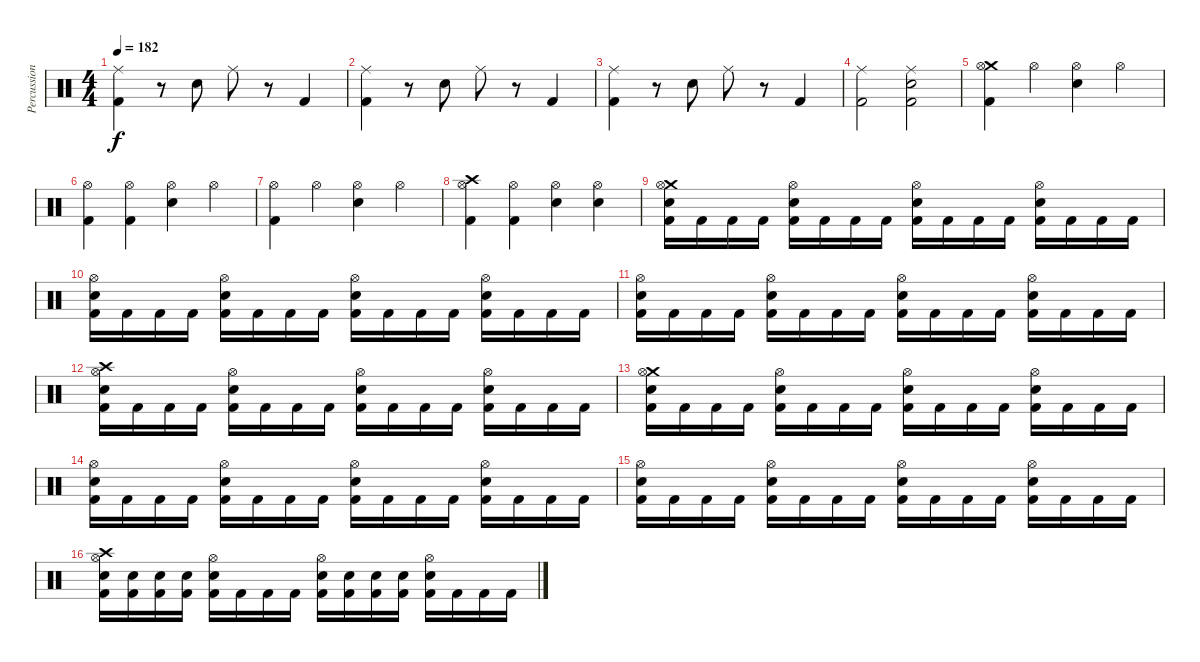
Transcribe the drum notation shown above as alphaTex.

\track ("Percussion" "Percussion") {instrument percussion}
\staff {score}
\articulation defaults
\ts (4 4)
\tempo 182
\clef neutral
\ks c
("Ride (middle)" "Kick (hit) 2").4{dy f} r.8 "Electric Snare (hit)".8 "Ride (middle)".8 r.8 "Kick (hit) 2".4 |
("Ride (middle)" "Kick (hit) 2").4 r.8 "Electric Snare (hit)".8 "Ride (middle)".8 r.8 "Kick (hit) 2".4 |
("Ride (middle)" "Kick (hit) 2").4 r.8 "Electric Snare (hit)".8 "Ride (middle)".8 r.8 "Kick (hit) 2".4 |
("Ride (middle)" "Kick (hit) 2").2 ("Ride (middle)" "Electric Snare (hit)" "Kick (hit) 2").2 |
("Crash medium (hit)" "Hi-Hat (open)" "Kick (hit) 2").4 "Hi-Hat (open)".4 ("Hi-Hat (open)" "Electric Snare (hit)").4 "Hi-Hat (open)".4 |
("Hi-Hat (open)" "Kick (hit) 2").4 ("Hi-Hat (open)" "Kick (hit) 2").4 ("Hi-Hat (open)" "Electric Snare (hit)").4 "Hi-Hat (open)".4 |
("Hi-Hat (open)" "Kick (hit) 2").4 "Hi-Hat (open)".4 ("Hi-Hat (open)" "Electric Snare (hit)").4 "Hi-Hat (open)".4 |
("Crash high (hit)" "Hi-Hat (open)" "Kick (hit) 2").4 ("Hi-Hat (open)" "Kick (hit) 2").4 ("Hi-Hat (open)" "Electric Snare (hit)").4 ("Hi-Hat (open)" "Electric Snare (hit)").4 |
("Crash medium (hit)" "Hi-Hat (open)" "Electric Snare (hit)" "Kick (hit) 2").16 "Kick (hit) 2".16 "Kick (hit) 2".16 "Kick (hit) 2".16 ("Hi-Hat (open)" "Electric Snare (hit)" "Kick (hit) 2").16 "Kick (hit) 2".16 "Kick (hit) 2".16 "Kick (hit) 2".16 ("Hi-Hat (open)" "Electric Snare (hit)" "Kick (hit) 2").16 "Kick (hit) 2".16 "Kick (hit) 2".16 "Kick (hit) 2".16 ("Hi-Hat (open)" "Electric Snare (hit)" "Kick (hit) 2").16 "Kick (hit) 2".16 "Kick (hit) 2".16 "Kick (hit) 2".16 |
("Hi-Hat (open)" "Electric Snare (hit)" "Kick (hit) 2").16 "Kick (hit) 2".16 "Kick (hit) 2".16 "Kick (hit) 2".16 ("Hi-Hat (open)" "Electric Snare (hit)" "Kick (hit) 2").16 "Kick (hit) 2".16 "Kick (hit) 2".16 "Kick (hit) 2".16 ("Hi-Hat (open)" "Electric Snare (hit)" "Kick (hit) 2").16 "Kick (hit) 2".16 "Kick (hit) 2".16 "Kick (hit) 2".16 ("Hi-Hat (open)" "Electric Snare (hit)" "Kick (hit) 2").16 "Kick (hit) 2".16 "Kick (hit) 2".16 "Kick (hit) 2".16 |
("Hi-Hat (open)" "Electric Snare (hit)" "Kick (hit) 2").16 "Kick (hit) 2".16 "Kick (hit) 2".16 "Kick (hit) 2".16 ("Hi-Hat (open)" "Electric Snare (hit)" "Kick (hit) 2").16 "Kick (hit) 2".16 "Kick (hit) 2".16 "Kick (hit) 2".16 ("Hi-Hat (open)" "Electric Snare (hit)" "Kick (hit) 2").16 "Kick (hit) 2".16 "Kick (hit) 2".16 "Kick (hit) 2".16 ("Hi-Hat (open)" "Electric Snare (hit)" "Kick (hit) 2").16 "Kick (hit) 2".16 "Kick (hit) 2".16 "Kick (hit) 2".16 |
("Crash high (hit)" "Hi-Hat (open)" "Electric Snare (hit)" "Kick (hit) 2").16 "Kick (hit) 2".16 "Kick (hit) 2".16 "Kick (hit) 2".16 ("Hi-Hat (open)" "Electric Snare (hit)" "Kick (hit) 2").16 "Kick (hit) 2".16 "Kick (hit) 2".16 "Kick (hit) 2".16 ("Hi-Hat (open)" "Electric Snare (hit)" "Kick (hit) 2").16 "Kick (hit) 2".16 "Kick (hit) 2".16 "Kick (hit) 2".16 ("Hi-Hat (open)" "Electric Snare (hit)" "Kick (hit) 2").16 "Kick (hit) 2".16 "Kick (hit) 2".16 "Kick (hit) 2".16 |
("Crash medium (hit)" "Hi-Hat (open)" "Electric Snare (hit)" "Kick (hit) 2").16 "Kick (hit) 2".16 "Kick (hit) 2".16 "Kick (hit) 2".16 ("Hi-Hat (open)" "Electric Snare (hit)" "Kick (hit) 2").16 "Kick (hit) 2".16 "Kick (hit) 2".16 "Kick (hit) 2".16 ("Hi-Hat (open)" "Electric Snare (hit)" "Kick (hit) 2").16 "Kick (hit) 2".16 "Kick (hit) 2".16 "Kick (hit) 2".16 ("Hi-Hat (open)" "Electric Snare (hit)" "Kick (hit) 2").16 "Kick (hit) 2".16 "Kick (hit) 2".16 "Kick (hit) 2".16 |
("Hi-Hat (open)" "Electric Snare (hit)" "Kick (hit) 2").16 "Kick (hit) 2".16 "Kick (hit) 2".16 "Kick (hit) 2".16 ("Hi-Hat (open)" "Electric Snare (hit)" "Kick (hit) 2").16 "Kick (hit) 2".16 "Kick (hit) 2".16 "Kick (hit) 2".16 ("Hi-Hat (open)" "Electric Snare (hit)" "Kick (hit) 2").16 "Kick (hit) 2".16 "Kick (hit) 2".16 "Kick (hit) 2".16 ("Hi-Hat (open)" "Electric Snare (hit)" "Kick (hit) 2").16 "Kick (hit) 2".16 "Kick (hit) 2".16 "Kick (hit) 2".16 |
("Hi-Hat (open)" "Electric Snare (hit)" "Kick (hit) 2").16 "Kick (hit) 2".16 "Kick (hit) 2".16 "Kick (hit) 2".16 ("Hi-Hat (open)" "Electric Snare (hit)" "Kick (hit) 2").16 "Kick (hit) 2".16 "Kick (hit) 2".16 "Kick (hit) 2".16 ("Hi-Hat (open)" "Electric Snare (hit)" "Kick (hit) 2").16 "Kick (hit) 2".16 "Kick (hit) 2".16 "Kick (hit) 2".16 ("Hi-Hat (open)" "Electric Snare (hit)" "Kick (hit) 2").16 "Kick (hit) 2".16 "Kick (hit) 2".16 "Kick (hit) 2".16 |
("Crash high (hit)" "Hi-Hat (open)" "Electric Snare (hit)" "Kick (hit) 2").16 ("Electric Snare (hit)" "Kick (hit) 2").16 ("Electric Snare (hit)" "Kick (hit) 2").16 ("Electric Snare (hit)" "Kick (hit) 2").16 ("Hi-Hat (open)" "Electric Snare (hit)" "Kick (hit) 2").16 "Kick (hit) 2".16 "Kick (hit) 2".16 "Kick (hit) 2".16 ("Hi-Hat (open)" "Electric Snare (hit)" "Kick (hit) 2").16 ("Electric Snare (hit)" "Kick (hit) 2").16 ("Electric Snare (hit)" "Kick (hit) 2").16 ("Electric Snare (hit)" "Kick (hit) 2").16 ("Hi-Hat (open)" "Electric Snare (hit)" "Kick (hit) 2").16 "Kick (hit) 2".16 "Kick (hit) 2".16 "Kick (hit) 2".16
